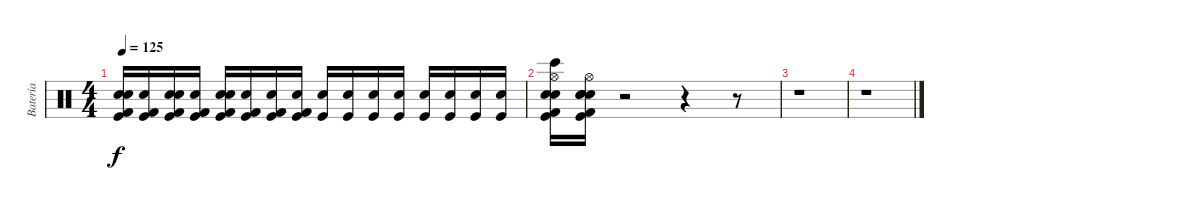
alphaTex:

\track ("Batería" "Batería") {instrument percussion}
\staff {score}
\articulation defaults
\ts (4 4)
\tempo 125
\clef neutral
\ks c
("Snare (hit)" "Snare (hit) 2" "Kick (hit)" "Kick (hit) 2").16{dy f} ("Snare (hit)" "Kick (hit)" "Kick (hit) 2").16 ("Snare (hit)" "Snare (hit) 2" "Kick (hit)" "Kick (hit) 2").16 ("Snare (hit)" "Kick (hit)" "Kick (hit) 2").16 ("Snare (hit)" "Kick (hit) 2" "Snare (hit) 2" "Kick (hit)").16 ("Snare (hit)" "Kick (hit) 2" "Kick (hit)").16 ("Snare (hit)" "Kick (hit) 2" "Kick (hit)").16 ("Snare (hit)" "Kick (hit) 2" "Kick (hit)").16 ("Snare (hit)" "Kick (hit)").16 ("Snare (hit)" "Kick (hit)").16 ("Snare (hit)" "Kick (hit)").16 ("Snare (hit)" "Kick (hit)").16 ("Snare (hit)" "Kick (hit)").16 ("Snare (hit)" "Kick (hit)").16 ("Snare (hit)" "Kick (hit)").16 ("Snare (hit)" "Kick (hit)").16 |
("Bongo High (hit)" "Kick (hit)" "Kick (hit) 2" "Electric Snare (hit)" "Snare (hit) 2" "Hi-Hat (open)").16 ("Snare (hit)" "Kick (hit)" "Kick (hit) 2" "Snare (hit) 2" "Electric Snare (hit)" "Hi-Hat (open)").16 r.2 r.4 r.8 |
r.1 |
r.1
